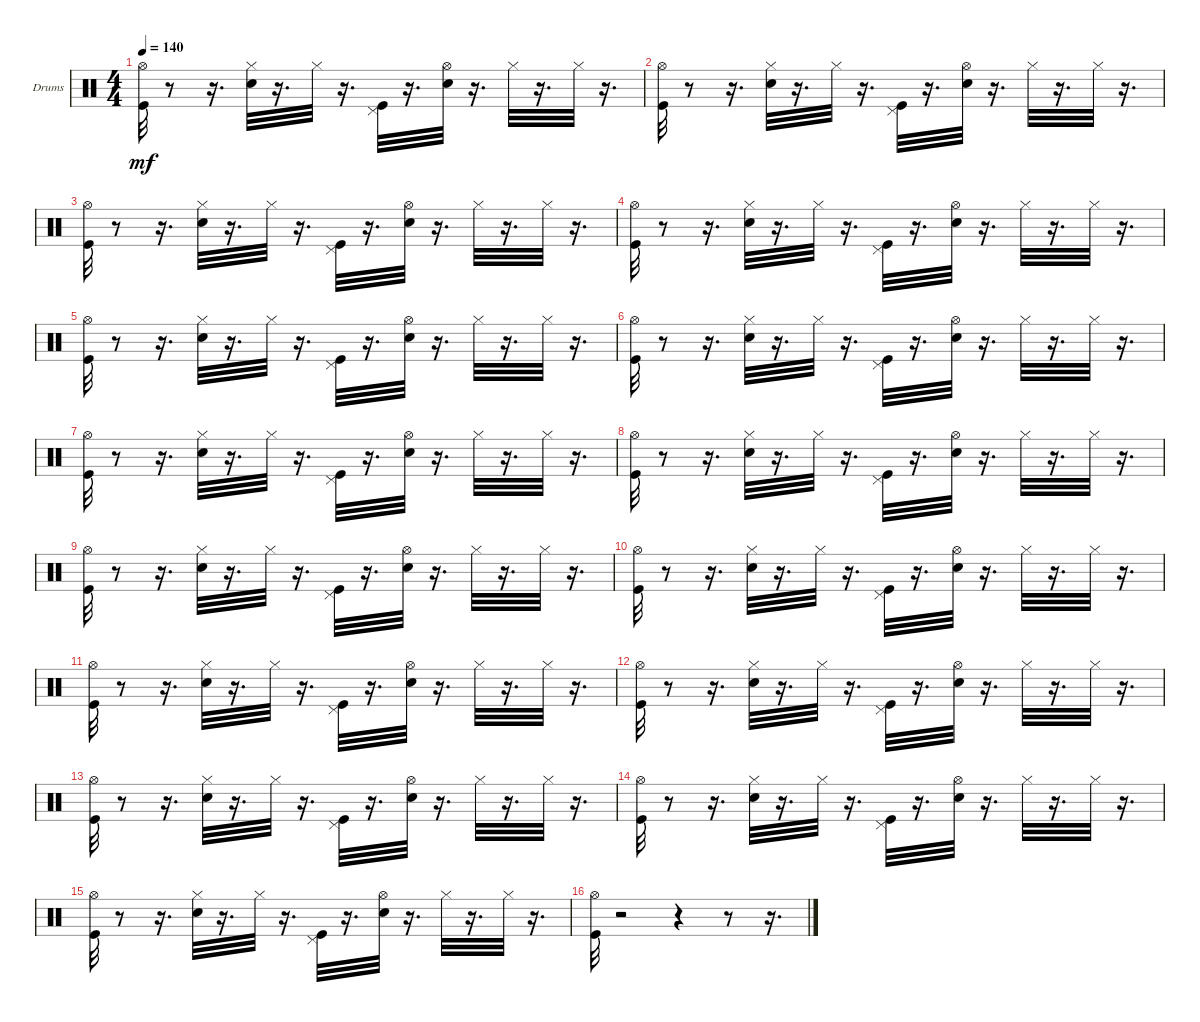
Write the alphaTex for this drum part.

\bracketExtendMode groupsimilarinstruments
\firstSystemTrackNameOrientation horizontal
\otherSystemsTrackNameOrientation horizontal
\track ("" "Drums") {instrument percussion}
\staff {score}
\articulation defaults
\ts (4 4)
\tempo 140
\clef neutral
\ks c
("Hi-Hat (open)" "Kick (hit)").32{dy mf} r.8 r.16{d} ("Hi-Hat (closed)" "Snare (hit) 2").32 r.16{d} "Hi-Hat (closed)".32 r.16{d} ("Pedal Hi-Hat (hit)" "Kick (hit)").32 r.16{d} ("Hi-Hat (open)" "Snare (hit) 2").32 r.16{d} "Hi-Hat (closed)".32 r.16{d} "Hi-Hat (closed)".32 r.16{d} |
("Hi-Hat (open)" "Kick (hit)").32 r.8 r.16{d} ("Hi-Hat (closed)" "Snare (hit) 2").32 r.16{d} "Hi-Hat (closed)".32 r.16{d} ("Pedal Hi-Hat (hit)" "Kick (hit)").32 r.16{d} ("Hi-Hat (open)" "Snare (hit) 2").32 r.16{d} "Hi-Hat (closed)".32 r.16{d} "Hi-Hat (closed)".32 r.16{d} |
("Hi-Hat (open)" "Kick (hit)").32 r.8 r.16{d} ("Hi-Hat (closed)" "Snare (hit) 2").32 r.16{d} "Hi-Hat (closed)".32 r.16{d} ("Pedal Hi-Hat (hit)" "Kick (hit)").32 r.16{d} ("Hi-Hat (open)" "Snare (hit) 2").32 r.16{d} "Hi-Hat (closed)".32 r.16{d} "Hi-Hat (closed)".32 r.16{d} |
("Hi-Hat (open)" "Kick (hit)").32 r.8 r.16{d} ("Hi-Hat (closed)" "Snare (hit) 2").32 r.16{d} "Hi-Hat (closed)".32 r.16{d} ("Pedal Hi-Hat (hit)" "Kick (hit)").32 r.16{d} ("Hi-Hat (open)" "Snare (hit) 2").32 r.16{d} "Hi-Hat (closed)".32 r.16{d} "Hi-Hat (closed)".32 r.16{d} |
("Hi-Hat (open)" "Kick (hit)").32 r.8 r.16{d} ("Hi-Hat (closed)" "Snare (hit) 2").32 r.16{d} "Hi-Hat (closed)".32 r.16{d} ("Pedal Hi-Hat (hit)" "Kick (hit)").32 r.16{d} ("Hi-Hat (open)" "Snare (hit) 2").32 r.16{d} "Hi-Hat (closed)".32 r.16{d} "Hi-Hat (closed)".32 r.16{d} |
("Hi-Hat (open)" "Kick (hit)").32 r.8 r.16{d} ("Hi-Hat (closed)" "Snare (hit) 2").32 r.16{d} "Hi-Hat (closed)".32 r.16{d} ("Pedal Hi-Hat (hit)" "Kick (hit)").32 r.16{d} ("Hi-Hat (open)" "Snare (hit) 2").32 r.16{d} "Hi-Hat (closed)".32 r.16{d} "Hi-Hat (closed)".32 r.16{d} |
("Hi-Hat (open)" "Kick (hit)").32 r.8 r.16{d} ("Hi-Hat (closed)" "Snare (hit) 2").32 r.16{d} "Hi-Hat (closed)".32 r.16{d} ("Pedal Hi-Hat (hit)" "Kick (hit)").32 r.16{d} ("Hi-Hat (open)" "Snare (hit) 2").32 r.16{d} "Hi-Hat (closed)".32 r.16{d} "Hi-Hat (closed)".32 r.16{d} |
("Hi-Hat (open)" "Kick (hit)").32 r.8 r.16{d} ("Hi-Hat (closed)" "Snare (hit) 2").32 r.16{d} "Hi-Hat (closed)".32 r.16{d} ("Pedal Hi-Hat (hit)" "Kick (hit)").32 r.16{d} ("Hi-Hat (open)" "Snare (hit) 2").32 r.16{d} "Hi-Hat (closed)".32 r.16{d} "Hi-Hat (closed)".32 r.16{d} |
("Hi-Hat (open)" "Kick (hit)").32 r.8 r.16{d} ("Hi-Hat (closed)" "Snare (hit) 2").32 r.16{d} "Hi-Hat (closed)".32 r.16{d} ("Pedal Hi-Hat (hit)" "Kick (hit)").32 r.16{d} ("Hi-Hat (open)" "Snare (hit) 2").32 r.16{d} "Hi-Hat (closed)".32 r.16{d} "Hi-Hat (closed)".32 r.16{d} |
("Hi-Hat (open)" "Kick (hit)").32 r.8 r.16{d} ("Hi-Hat (closed)" "Snare (hit) 2").32 r.16{d} "Hi-Hat (closed)".32 r.16{d} ("Pedal Hi-Hat (hit)" "Kick (hit)").32 r.16{d} ("Hi-Hat (open)" "Snare (hit) 2").32 r.16{d} "Hi-Hat (closed)".32 r.16{d} "Hi-Hat (closed)".32 r.16{d} |
("Hi-Hat (open)" "Kick (hit)").32 r.8 r.16{d} ("Hi-Hat (closed)" "Snare (hit) 2").32 r.16{d} "Hi-Hat (closed)".32 r.16{d} ("Pedal Hi-Hat (hit)" "Kick (hit)").32 r.16{d} ("Hi-Hat (open)" "Snare (hit) 2").32 r.16{d} "Hi-Hat (closed)".32 r.16{d} "Hi-Hat (closed)".32 r.16{d} |
("Hi-Hat (open)" "Kick (hit)").32 r.8 r.16{d} ("Hi-Hat (closed)" "Snare (hit) 2").32 r.16{d} "Hi-Hat (closed)".32 r.16{d} ("Pedal Hi-Hat (hit)" "Kick (hit)").32 r.16{d} ("Hi-Hat (open)" "Snare (hit) 2").32 r.16{d} "Hi-Hat (closed)".32 r.16{d} "Hi-Hat (closed)".32 r.16{d} |
("Hi-Hat (open)" "Kick (hit)").32 r.8 r.16{d} ("Hi-Hat (closed)" "Snare (hit) 2").32 r.16{d} "Hi-Hat (closed)".32 r.16{d} ("Pedal Hi-Hat (hit)" "Kick (hit)").32 r.16{d} ("Hi-Hat (open)" "Snare (hit) 2").32 r.16{d} "Hi-Hat (closed)".32 r.16{d} "Hi-Hat (closed)".32 r.16{d} |
("Hi-Hat (open)" "Kick (hit)").32 r.8 r.16{d} ("Hi-Hat (closed)" "Snare (hit) 2").32 r.16{d} "Hi-Hat (closed)".32 r.16{d} ("Pedal Hi-Hat (hit)" "Kick (hit)").32 r.16{d} ("Hi-Hat (open)" "Snare (hit) 2").32 r.16{d} "Hi-Hat (closed)".32 r.16{d} "Hi-Hat (closed)".32 r.16{d} |
("Hi-Hat (open)" "Kick (hit)").32 r.8 r.16{d} ("Hi-Hat (closed)" "Snare (hit) 2").32 r.16{d} "Hi-Hat (closed)".32 r.16{d} ("Pedal Hi-Hat (hit)" "Kick (hit)").32 r.16{d} ("Hi-Hat (open)" "Snare (hit) 2").32 r.16{d} "Hi-Hat (closed)".32 r.16{d} "Hi-Hat (closed)".32 r.16{d} |
("Hi-Hat (open)" "Kick (hit)").32 r.2 r.4 r.8 r.16{d}
